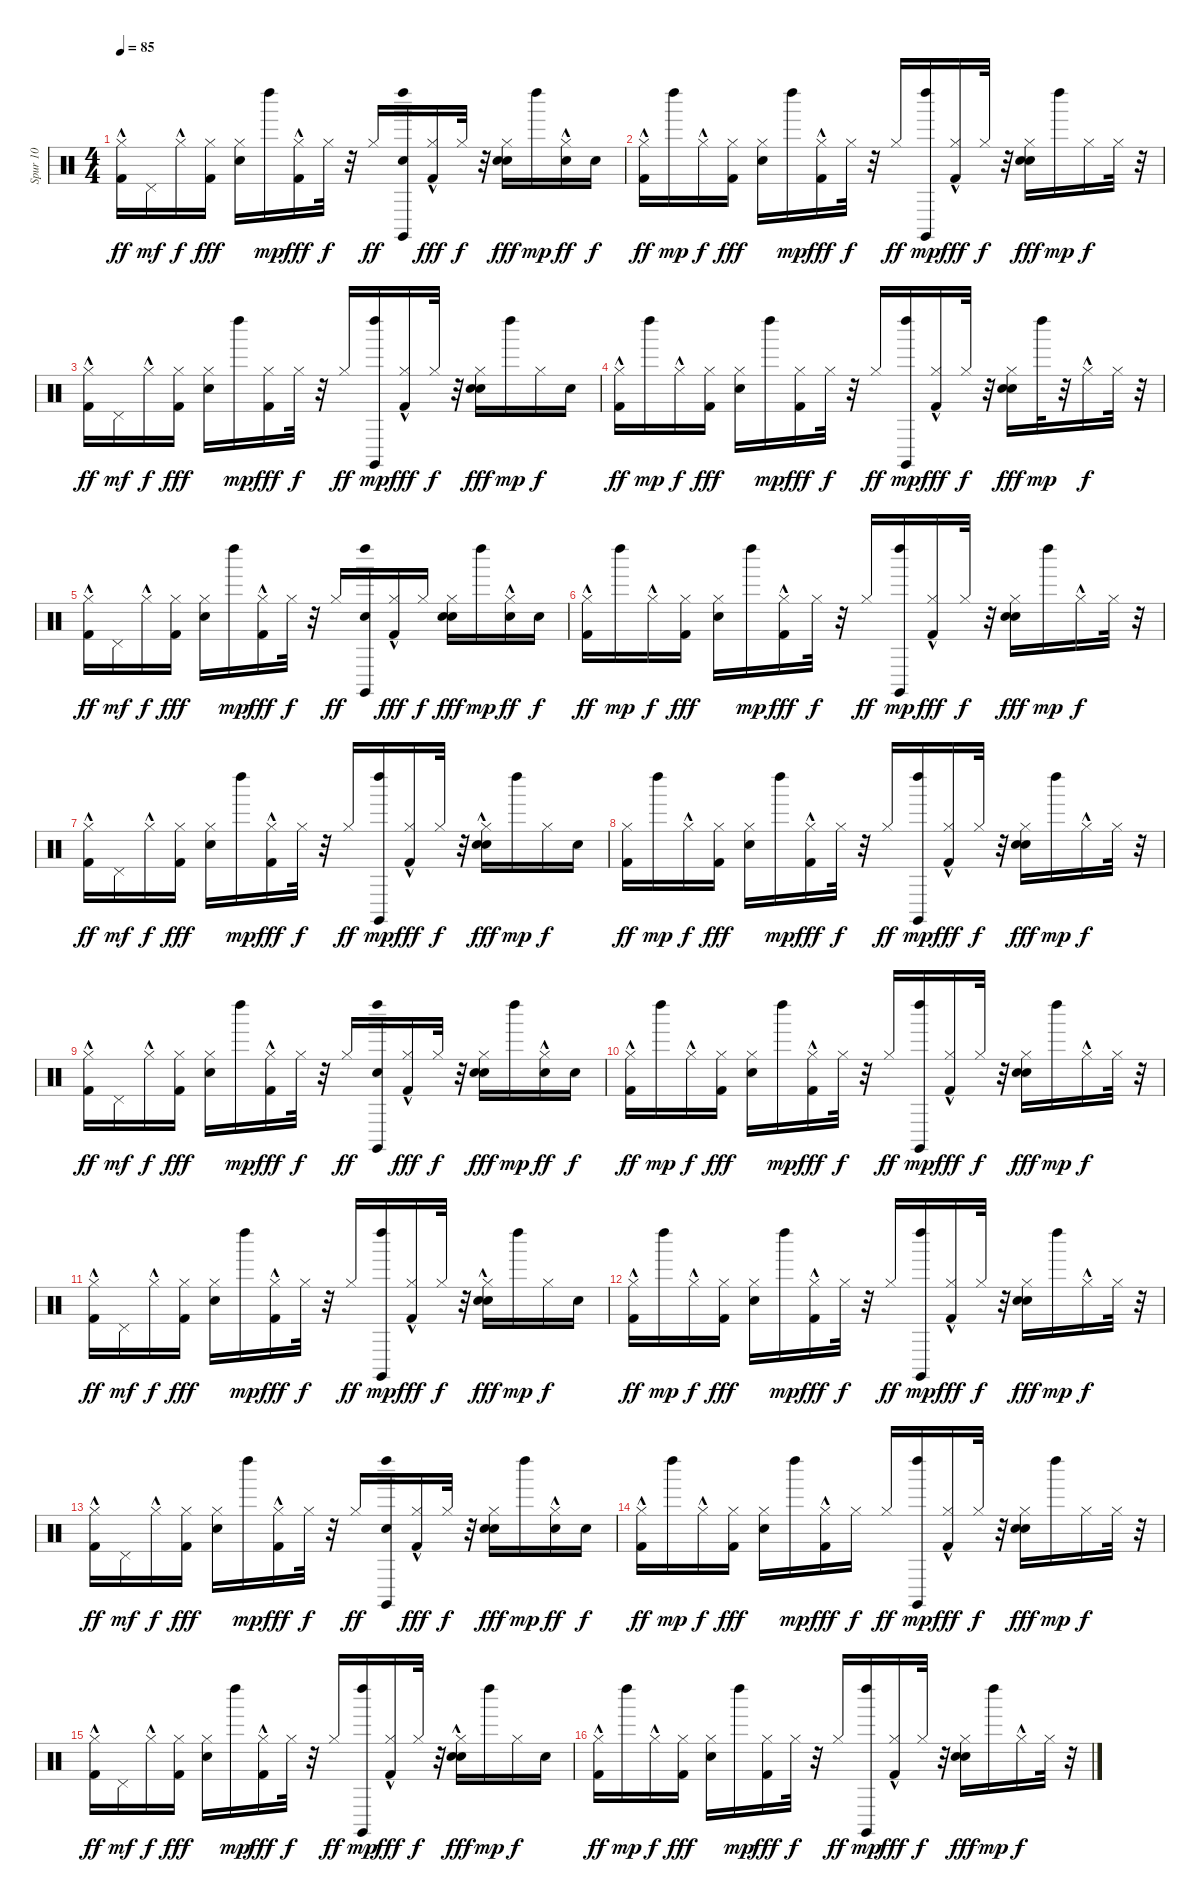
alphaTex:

\track ("Spur 10" "Spur 10") {instrument percussion}
\staff {score}
\articulation defaults
\ts (4 4)
\tempo 85
\clef neutral
\ks c
("Kick (hit) 2"{hac} "Hi-Hat (closed)").16{dy ff} "Pedal Hi-Hat (hit)".16{dy mf} "Hi-Hat (closed)"{hac}.16{dy f} ("Kick (hit) 2" "Hi-Hat (closed)").16{dy fff} ("Hi-Hat (closed)" "Snare (hit) 2").16 "Left Maraca (hit)".16{dy mp} ("Kick (hit) 2" "Hi-Hat (closed)"{hac}).16{dy fff} "Hi-Hat (closed)".32{dy f} r.32 "Hi-Hat (closed)".16{dy ff} ("Left Maraca (hit)" "Claves (hit)" "Snare (hit) 2").16 ("Kick (hit) 2"{hac} "Hi-Hat (closed)"{hac}).16{dy fff} "Hi-Hat (closed)".32{dy f} r.32 ("Hi-Hat (closed)" "Snare (hit) 2" "Hand Clap (hit)").16{dy fff} "Left Maraca (hit)".16{dy mp} ("Hi-Hat (closed)" "Snare (hit) 2"{hac}).16{dy ff} "Snare (hit) 2".16{dy f} |
("Kick (hit) 2"{hac} "Hi-Hat (closed)").16{dy ff} "Left Maraca (hit)".16{dy mp} "Hi-Hat (closed)"{hac}.16{dy f} ("Kick (hit) 2" "Hi-Hat (closed)").16{dy fff} ("Hi-Hat (closed)" "Snare (hit) 2").16 "Left Maraca (hit)".16{dy mp} ("Kick (hit) 2" "Hi-Hat (closed)"{hac}).16{dy fff} "Hi-Hat (closed)".32{dy f} r.32 "Hi-Hat (closed)".16{dy ff} ("Left Maraca (hit)" "Claves (hit)").16{dy mp} ("Kick (hit) 2"{hac} "Hi-Hat (closed)"{hac}).16{dy fff} "Hi-Hat (closed)".32{dy f} r.32 ("Hi-Hat (closed)" "Snare (hit) 2" "Hand Clap (hit)").16{dy fff} "Left Maraca (hit)".16{dy mp} "Hi-Hat (closed)".16{dy f} "Hi-Hat (closed)".32 r.32 |
("Kick (hit) 2"{hac} "Hi-Hat (closed)").16{dy ff} "Pedal Hi-Hat (hit)".16{dy mf} "Hi-Hat (closed)"{hac}.16{dy f} ("Kick (hit) 2" "Hi-Hat (closed)").16{dy fff} ("Hi-Hat (closed)" "Snare (hit) 2").16 "Left Maraca (hit)".16{dy mp} ("Kick (hit) 2" "Hi-Hat (closed)").16{dy fff} "Hi-Hat (closed)".32{dy f} r.32 "Hi-Hat (closed)".16{dy ff} ("Left Maraca (hit)" "Claves (hit)").16{dy mp} ("Kick (hit) 2"{hac} "Hi-Hat (closed)"{hac}).16{dy fff} "Hi-Hat (closed)".32{dy f} r.32 ("Hi-Hat (closed)" "Snare (hit) 2" "Hand Clap (hit)").16{dy fff} "Left Maraca (hit)".16{dy mp} "Hi-Hat (closed)".16{dy f} "Snare (hit) 2".16 |
("Kick (hit) 2"{hac} "Hi-Hat (closed)").16{dy ff} "Left Maraca (hit)".16{dy mp} "Hi-Hat (closed)"{hac}.16{dy f} ("Kick (hit) 2" "Hi-Hat (closed)").16{dy fff} ("Hi-Hat (closed)" "Snare (hit) 2").16 "Left Maraca (hit)".16{dy mp} ("Kick (hit) 2" "Hi-Hat (closed)").16{dy fff} "Hi-Hat (closed)".32{dy f} r.32 "Hi-Hat (closed)".16{dy ff} ("Left Maraca (hit)" "Claves (hit)").16{dy mp} ("Kick (hit) 2"{hac} "Hi-Hat (closed)"{hac}).16{dy fff} "Hi-Hat (closed)".32{dy f} r.32 ("Hi-Hat (closed)" "Snare (hit) 2" "Hand Clap (hit)").16{dy fff} "Left Maraca (hit)".32{dy mp} r.32 "Hi-Hat (closed)"{hac}.16{dy f} "Hi-Hat (closed)".32 r.32 |
("Kick (hit) 2"{hac} "Hi-Hat (closed)").16{dy ff} "Pedal Hi-Hat (hit)".16{dy mf} "Hi-Hat (closed)"{hac}.16{dy f} ("Kick (hit) 2" "Hi-Hat (closed)").16{dy fff} ("Hi-Hat (closed)" "Snare (hit) 2").16 "Left Maraca (hit)".16{dy mp} ("Kick (hit) 2" "Hi-Hat (closed)"{hac}).16{dy fff} "Hi-Hat (closed)".32{dy f} r.32 "Hi-Hat (closed)".16{dy ff} ("Left Maraca (hit)" "Claves (hit)" "Snare (hit) 2").16 ("Kick (hit) 2"{hac} "Hi-Hat (closed)"{hac}).16{dy fff} "Hi-Hat (closed)".16{dy f} ("Hi-Hat (closed)" "Snare (hit) 2" "Hand Clap (hit)").16{dy fff} "Left Maraca (hit)".16{dy mp} ("Hi-Hat (closed)" "Snare (hit) 2"{hac}).16{dy ff} "Snare (hit) 2".16{dy f} |
("Kick (hit) 2"{hac} "Hi-Hat (closed)").16{dy ff} "Left Maraca (hit)".16{dy mp} "Hi-Hat (closed)"{hac}.16{dy f} ("Kick (hit) 2" "Hi-Hat (closed)").16{dy fff} ("Hi-Hat (closed)" "Snare (hit) 2").16 "Left Maraca (hit)".16{dy mp} ("Kick (hit) 2" "Hi-Hat (closed)"{hac}).16{dy fff} "Hi-Hat (closed)".32{dy f} r.32 "Hi-Hat (closed)".16{dy ff} ("Left Maraca (hit)" "Claves (hit)").16{dy mp} ("Kick (hit) 2"{hac} "Hi-Hat (closed)"{hac}).16{dy fff} "Hi-Hat (closed)".32{dy f} r.32 ("Hi-Hat (closed)" "Snare (hit) 2" "Hand Clap (hit)").16{dy fff} "Left Maraca (hit)".16{dy mp} "Hi-Hat (closed)"{hac}.16{dy f} "Hi-Hat (closed)".32 r.32 |
("Kick (hit) 2"{hac} "Hi-Hat (closed)").16{dy ff} "Pedal Hi-Hat (hit)".16{dy mf} "Hi-Hat (closed)"{hac}.16{dy f} ("Kick (hit) 2" "Hi-Hat (closed)").16{dy fff} ("Hi-Hat (closed)" "Snare (hit) 2").16 "Left Maraca (hit)".16{dy mp} ("Kick (hit) 2" "Hi-Hat (closed)"{hac}).16{dy fff} "Hi-Hat (closed)".32{dy f} r.32 "Hi-Hat (closed)".16{dy ff} ("Left Maraca (hit)" "Claves (hit)").16{dy mp} ("Kick (hit) 2"{hac} "Hi-Hat (closed)"{hac}).16{dy fff} "Hi-Hat (closed)".32{dy f} r.32 ("Hi-Hat (closed)" "Snare (hit) 2"{hac} "Hand Clap (hit)").16{dy fff} "Left Maraca (hit)".16{dy mp} "Hi-Hat (closed)".16{dy f} "Snare (hit) 2".16 |
("Kick (hit) 2" "Hi-Hat (closed)").16{dy ff} "Left Maraca (hit)".16{dy mp} "Hi-Hat (closed)"{hac}.16{dy f} ("Kick (hit) 2" "Hi-Hat (closed)").16{dy fff} ("Hi-Hat (closed)" "Snare (hit) 2").16 "Left Maraca (hit)".16{dy mp} ("Kick (hit) 2" "Hi-Hat (closed)"{hac}).16{dy fff} "Hi-Hat (closed)".32{dy f} r.32 "Hi-Hat (closed)".16{dy ff} ("Left Maraca (hit)" "Claves (hit)").16{dy mp} ("Kick (hit) 2"{hac} "Hi-Hat (closed)").16{dy fff} "Hi-Hat (closed)".32{dy f} r.32 ("Hi-Hat (closed)" "Snare (hit) 2" "Hand Clap (hit)").16{dy fff} "Left Maraca (hit)".16{dy mp} "Hi-Hat (closed)"{hac}.16{dy f} "Hi-Hat (closed)".32 r.32 |
("Kick (hit) 2"{hac} "Hi-Hat (closed)").16{dy ff} "Pedal Hi-Hat (hit)".16{dy mf} "Hi-Hat (closed)"{hac}.16{dy f} ("Kick (hit) 2" "Hi-Hat (closed)").16{dy fff} ("Hi-Hat (closed)" "Snare (hit) 2").16 "Left Maraca (hit)".16{dy mp} ("Kick (hit) 2" "Hi-Hat (closed)"{hac}).16{dy fff} "Hi-Hat (closed)".32{dy f} r.32 "Hi-Hat (closed)".16{dy ff} ("Left Maraca (hit)" "Claves (hit)" "Snare (hit) 2").16 ("Kick (hit) 2"{hac} "Hi-Hat (closed)"{hac}).16{dy fff} "Hi-Hat (closed)".32{dy f} r.32 ("Hi-Hat (closed)" "Snare (hit) 2" "Hand Clap (hit)").16{dy fff} "Left Maraca (hit)".16{dy mp} ("Hi-Hat (closed)" "Snare (hit) 2"{hac}).16{dy ff} "Snare (hit) 2".16{dy f} |
("Kick (hit) 2"{hac} "Hi-Hat (closed)").16{dy ff} "Left Maraca (hit)".16{dy mp} "Hi-Hat (closed)"{hac}.16{dy f} ("Kick (hit) 2" "Hi-Hat (closed)").16{dy fff} ("Hi-Hat (closed)" "Snare (hit) 2").16 "Left Maraca (hit)".16{dy mp} ("Kick (hit) 2" "Hi-Hat (closed)"{hac}).16{dy fff} "Hi-Hat (closed)".32{dy f} r.32 "Hi-Hat (closed)".16{dy ff} ("Left Maraca (hit)" "Claves (hit)").16{dy mp} ("Kick (hit) 2"{hac} "Hi-Hat (closed)"{hac}).16{dy fff} "Hi-Hat (closed)".32{dy f} r.32 ("Hi-Hat (closed)" "Snare (hit) 2" "Hand Clap (hit)").16{dy fff} "Left Maraca (hit)".16{dy mp} "Hi-Hat (closed)"{hac}.16{dy f} "Hi-Hat (closed)".32 r.32 |
("Kick (hit) 2"{hac} "Hi-Hat (closed)").16{dy ff} "Pedal Hi-Hat (hit)".16{dy mf} "Hi-Hat (closed)"{hac}.16{dy f} ("Kick (hit) 2" "Hi-Hat (closed)").16{dy fff} ("Hi-Hat (closed)" "Snare (hit) 2").16 "Left Maraca (hit)".16{dy mp} ("Kick (hit) 2" "Hi-Hat (closed)"{hac}).16{dy fff} "Hi-Hat (closed)".32{dy f} r.32 "Hi-Hat (closed)".16{dy ff} ("Left Maraca (hit)" "Claves (hit)").16{dy mp} ("Kick (hit) 2"{hac} "Hi-Hat (closed)"{hac}).16{dy fff} "Hi-Hat (closed)".32{dy f} r.32 ("Hi-Hat (closed)" "Snare (hit) 2"{hac} "Hand Clap (hit)").16{dy fff} "Left Maraca (hit)".16{dy mp} "Hi-Hat (closed)".16{dy f} "Snare (hit) 2".16 |
("Kick (hit) 2"{hac} "Hi-Hat (closed)").16{dy ff} "Left Maraca (hit)".16{dy mp} "Hi-Hat (closed)"{hac}.16{dy f} ("Kick (hit) 2" "Hi-Hat (closed)").16{dy fff} ("Hi-Hat (closed)" "Snare (hit) 2").16 "Left Maraca (hit)".16{dy mp} ("Kick (hit) 2" "Hi-Hat (closed)"{hac}).16{dy fff} "Hi-Hat (closed)".32{dy f} r.32 "Hi-Hat (closed)".16{dy ff} ("Left Maraca (hit)" "Claves (hit)").16{dy mp} ("Kick (hit) 2"{hac} "Hi-Hat (closed)"{hac}).16{dy fff} "Hi-Hat (closed)".32{dy f} r.32 ("Hi-Hat (closed)" "Snare (hit) 2" "Hand Clap (hit)").16{dy fff} "Left Maraca (hit)".16{dy mp} "Hi-Hat (closed)"{hac}.16{dy f} "Hi-Hat (closed)".32 r.32 |
("Kick (hit) 2"{hac} "Hi-Hat (closed)").16{dy ff} "Pedal Hi-Hat (hit)".16{dy mf} "Hi-Hat (closed)"{hac}.16{dy f} ("Kick (hit) 2" "Hi-Hat (closed)").16{dy fff} ("Hi-Hat (closed)" "Snare (hit) 2").16 "Left Maraca (hit)".16{dy mp} ("Kick (hit) 2" "Hi-Hat (closed)"{hac}).16{dy fff} "Hi-Hat (closed)".32{dy f} r.32 "Hi-Hat (closed)".16{dy ff} ("Left Maraca (hit)" "Claves (hit)" "Snare (hit) 2").16 ("Kick (hit) 2"{hac} "Hi-Hat (closed)"{hac}).16{dy fff} "Hi-Hat (closed)".32{dy f} r.32 ("Hi-Hat (closed)" "Snare (hit) 2" "Hand Clap (hit)").16{dy fff} "Left Maraca (hit)".16{dy mp} ("Hi-Hat (closed)" "Snare (hit) 2"{hac}).16{dy ff} "Snare (hit) 2".16{dy f} |
("Kick (hit) 2"{hac} "Hi-Hat (closed)").16{dy ff} "Left Maraca (hit)".16{dy mp} "Hi-Hat (closed)"{hac}.16{dy f} ("Kick (hit) 2" "Hi-Hat (closed)").16{dy fff} ("Hi-Hat (closed)" "Snare (hit) 2").16 "Left Maraca (hit)".16{dy mp} ("Kick (hit) 2" "Hi-Hat (closed)"{hac}).16{dy fff} "Hi-Hat (closed)".16{dy f} "Hi-Hat (closed)".16{dy ff} ("Left Maraca (hit)" "Claves (hit)").16{dy mp} ("Kick (hit) 2"{hac} "Hi-Hat (closed)"{hac}).16{dy fff} "Hi-Hat (closed)".32{dy f} r.32 ("Hi-Hat (closed)" "Snare (hit) 2" "Hand Clap (hit)").16{dy fff} "Left Maraca (hit)".16{dy mp} "Hi-Hat (closed)".16{dy f} "Hi-Hat (closed)".32 r.32 |
("Kick (hit) 2"{hac} "Hi-Hat (closed)").16{dy ff} "Pedal Hi-Hat (hit)".16{dy mf} "Hi-Hat (closed)"{hac}.16{dy f} ("Kick (hit) 2" "Hi-Hat (closed)").16{dy fff} ("Hi-Hat (closed)" "Snare (hit) 2").16 "Left Maraca (hit)".16{dy mp} ("Kick (hit) 2" "Hi-Hat (closed)"{hac}).16{dy fff} "Hi-Hat (closed)".32{dy f} r.32 "Hi-Hat (closed)".16{dy ff} ("Left Maraca (hit)" "Claves (hit)").16{dy mp} ("Kick (hit) 2" "Hi-Hat (closed)"{hac}).16{dy fff} "Hi-Hat (closed)".32{dy f} r.32 ("Hi-Hat (closed)" "Snare (hit) 2"{hac} "Hand Clap (hit)").16{dy fff} "Left Maraca (hit)".16{dy mp} "Hi-Hat (closed)".16{dy f} "Snare (hit) 2".16 |
("Kick (hit) 2"{hac} "Hi-Hat (closed)").16{dy ff} "Left Maraca (hit)".16{dy mp} "Hi-Hat (closed)"{hac}.16{dy f} ("Kick (hit) 2" "Hi-Hat (closed)").16{dy fff} ("Hi-Hat (closed)" "Snare (hit) 2").16 "Left Maraca (hit)".16{dy mp} ("Kick (hit) 2" "Hi-Hat (closed)").16{dy fff} "Hi-Hat (closed)".32{dy f} r.32 "Hi-Hat (closed)".16{dy ff} ("Left Maraca (hit)" "Claves (hit)").16{dy mp} ("Kick (hit) 2"{hac} "Hi-Hat (closed)"{hac}).16{dy fff} "Hi-Hat (closed)".32{dy f} r.32 ("Hi-Hat (closed)" "Snare (hit) 2" "Hand Clap (hit)").16{dy fff} "Left Maraca (hit)".16{dy mp} "Hi-Hat (closed)"{hac}.16{dy f} "Hi-Hat (closed)".32 r.32
